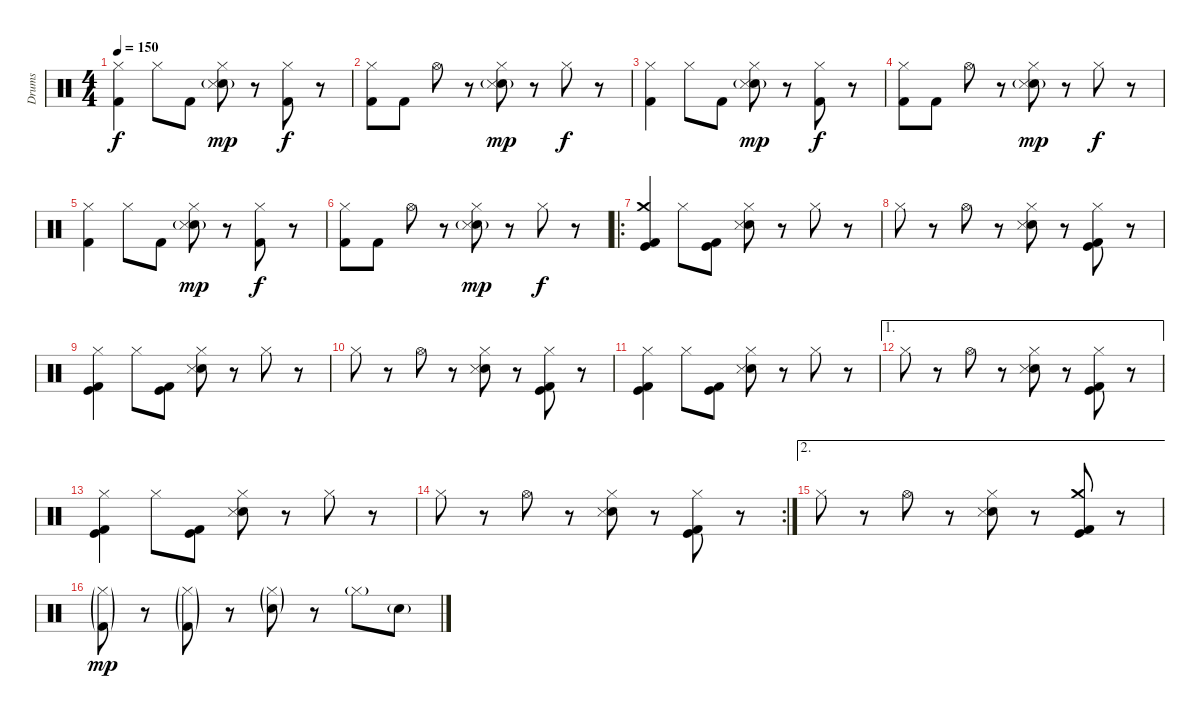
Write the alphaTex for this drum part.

\track ("Drums" "Drums") {instrument percussion}
\staff {score}
\articulation defaults
\ts (4 4)
\tempo 150
\clef neutral
\ks c
("Hi-Hat (closed)" "Kick (hit) 2").4{dy f} "Hi-Hat (closed)".8 "Kick (hit) 2".8 ("Hi-Hat (closed)" "Snare (hit) 2"{g} "Snare (side stick) 3").8{dy mp} r.8 ("Hi-Hat (closed)" "Kick (hit) 2").8{dy f} r.8 |
("Hi-Hat (closed)" "Kick (hit) 2").8 "Kick (hit) 2".8 "Hi-Hat (open)".8 r.8 ("Hi-Hat (closed)" "Snare (hit) 2"{g} "Snare (side stick) 3").8{dy mp} r.8 "Hi-Hat (closed)".8{dy f} r.8 |
("Hi-Hat (closed)" "Kick (hit) 2").4 "Hi-Hat (closed)".8 "Kick (hit) 2".8 ("Hi-Hat (closed)" "Snare (hit) 2"{g} "Snare (side stick) 3").8{dy mp} r.8 ("Hi-Hat (closed)" "Kick (hit) 2").8{dy f} r.8 |
("Hi-Hat (closed)" "Kick (hit) 2").8 "Kick (hit) 2".8 "Hi-Hat (open)".8 r.8 ("Hi-Hat (closed)" "Snare (hit) 2"{g} "Snare (side stick) 3").8{dy mp} r.8 "Hi-Hat (closed)".8{dy f} r.8 |
("Hi-Hat (closed)" "Kick (hit) 2").4 "Hi-Hat (closed)".8 "Kick (hit) 2".8 ("Hi-Hat (closed)" "Snare (hit) 2"{g} "Snare (side stick) 3").8{dy mp} r.8 ("Hi-Hat (closed)" "Kick (hit) 2").8{dy f} r.8 |
("Hi-Hat (closed)" "Kick (hit) 2").8 "Kick (hit) 2".8 "Hi-Hat (open)".8 r.8 ("Hi-Hat (closed)" "Snare (hit) 2"{g} "Snare (side stick) 3").8{dy mp} r.8 "Hi-Hat (closed)".8{dy f} r.8 |
\ro
("Crash medium (hit)" "Kick (hit)" "Kick (hit) 2").4 "Hi-Hat (closed)".8 ("Kick (hit)" "Kick (hit) 2").8 ("Hi-Hat (closed)" "Snare (hit) 2" "Snare (side stick) 3").8 r.8 "Hi-Hat (closed)".8 r.8 |
"Hi-Hat (closed)".8 r.8 "Hi-Hat (open)".8 r.8 ("Hi-Hat (closed)" "Snare (hit) 2" "Snare (side stick) 3").8 r.8 ("Hi-Hat (closed)" "Kick (hit)" "Kick (hit) 2").8 r.8 |
("Hi-Hat (closed)" "Kick (hit)" "Kick (hit) 2").4 "Hi-Hat (closed)".8 ("Kick (hit)" "Kick (hit) 2").8 ("Hi-Hat (closed)" "Snare (hit) 2" "Snare (side stick) 3").8 r.8 "Hi-Hat (closed)".8 r.8 |
"Hi-Hat (closed)".8 r.8 "Hi-Hat (open)".8 r.8 ("Hi-Hat (closed)" "Snare (hit) 2" "Snare (side stick) 3").8 r.8 ("Hi-Hat (closed)" "Kick (hit)" "Kick (hit) 2").8 r.8 |
("Hi-Hat (closed)" "Kick (hit)" "Kick (hit) 2").4 "Hi-Hat (closed)".8 ("Kick (hit)" "Kick (hit) 2").8 ("Hi-Hat (closed)" "Snare (hit) 2" "Snare (side stick) 3").8 r.8 "Hi-Hat (closed)".8 r.8 |
\ae 1 "Hi-Hat (closed)".8
r.8 "Hi-Hat (open)".8 r.8 ("Hi-Hat (closed)" "Snare (hit) 2" "Snare (side stick) 3").8 r.8 ("Hi-Hat (closed)" "Kick (hit)" "Kick (hit) 2").8 r.8 |
("Hi-Hat (closed)" "Kick (hit)" "Kick (hit) 2").4 "Hi-Hat (closed)".8 ("Kick (hit)" "Kick (hit) 2").8 ("Hi-Hat (closed)" "Snare (hit) 2" "Snare (side stick) 3").8 r.8 "Hi-Hat (closed)".8 r.8 |
\rc 2 "Hi-Hat (closed)".8
r.8 "Hi-Hat (open)".8 r.8 ("Hi-Hat (closed)" "Snare (hit) 2" "Snare (side stick) 3").8 r.8 ("Hi-Hat (closed)" "Kick (hit)" "Kick (hit) 2").8 r.8 |
\ae 2 "Hi-Hat (closed)".8
r.8 "Hi-Hat (open)".8 r.8 ("Hi-Hat (closed)" "Snare (hit) 2" "Snare (side stick) 3").8 r.8 ("Crash medium (hit)" "Kick (hit)" "Kick (hit) 2").8 r.8 |
("Hi-Hat (closed)"{g} "Kick (hit) 2"{g}).8{dy mp} r.8 ("Hi-Hat (closed)"{g} "Kick (hit) 2"{g}).8 r.8 ("Hi-Hat (closed)"{g} "Snare (hit) 2"{g}).8 r.8 "Hi-Hat (closed)"{g}.8 "Snare (hit) 2"{g}.8
